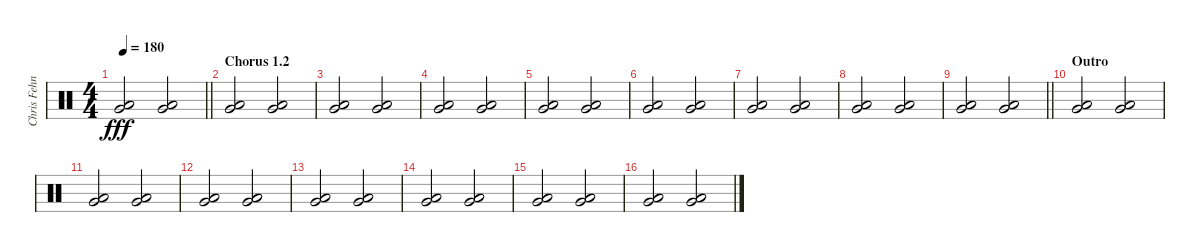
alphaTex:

\track ("Chris Fehn" "Chris Fehn") {instrument percussion}
\staff {score}
\articulation defaults
\ts (4 4)
\tempo 180
\clef neutral
\barLineRight lightlight
\ks c
("Very Low Tom (hit)" "Low Floor Tom (hit)").2{dy fff} ("Very Low Tom (hit)" "Low Floor Tom (hit)").2 |
\section ("" "Chorus 1.2")
("Very Low Tom (hit)" "Low Floor Tom (hit)").2 ("Very Low Tom (hit)" "Low Floor Tom (hit)").2 |
("Very Low Tom (hit)" "Low Floor Tom (hit)").2 ("Very Low Tom (hit)" "Low Floor Tom (hit)").2 |
("Very Low Tom (hit)" "Low Floor Tom (hit)").2 ("Very Low Tom (hit)" "Low Floor Tom (hit)").2 |
("Very Low Tom (hit)" "Low Floor Tom (hit)").2 ("Very Low Tom (hit)" "Low Floor Tom (hit)").2 |
("Very Low Tom (hit)" "Low Floor Tom (hit)").2 ("Very Low Tom (hit)" "Low Floor Tom (hit)").2 |
("Very Low Tom (hit)" "Low Floor Tom (hit)").2 ("Very Low Tom (hit)" "Low Floor Tom (hit)").2 |
("Very Low Tom (hit)" "Low Floor Tom (hit)").2 ("Very Low Tom (hit)" "Low Floor Tom (hit)").2 |
\barLineRight lightlight
("Very Low Tom (hit)" "Low Floor Tom (hit)").2 ("Very Low Tom (hit)" "Low Floor Tom (hit)").2 |
\section ("" "Outro")
("Very Low Tom (hit)" "Low Floor Tom (hit)").2 ("Very Low Tom (hit)" "Low Floor Tom (hit)").2 |
("Very Low Tom (hit)" "Low Floor Tom (hit)").2 ("Very Low Tom (hit)" "Low Floor Tom (hit)").2 |
("Very Low Tom (hit)" "Low Floor Tom (hit)").2 ("Very Low Tom (hit)" "Low Floor Tom (hit)").2 |
("Very Low Tom (hit)" "Low Floor Tom (hit)").2 ("Very Low Tom (hit)" "Low Floor Tom (hit)").2 |
("Very Low Tom (hit)" "Low Floor Tom (hit)").2 ("Very Low Tom (hit)" "Low Floor Tom (hit)").2 |
("Very Low Tom (hit)" "Low Floor Tom (hit)").2 ("Very Low Tom (hit)" "Low Floor Tom (hit)").2 |
("Very Low Tom (hit)" "Low Floor Tom (hit)").2 ("Very Low Tom (hit)" "Low Floor Tom (hit)").2
